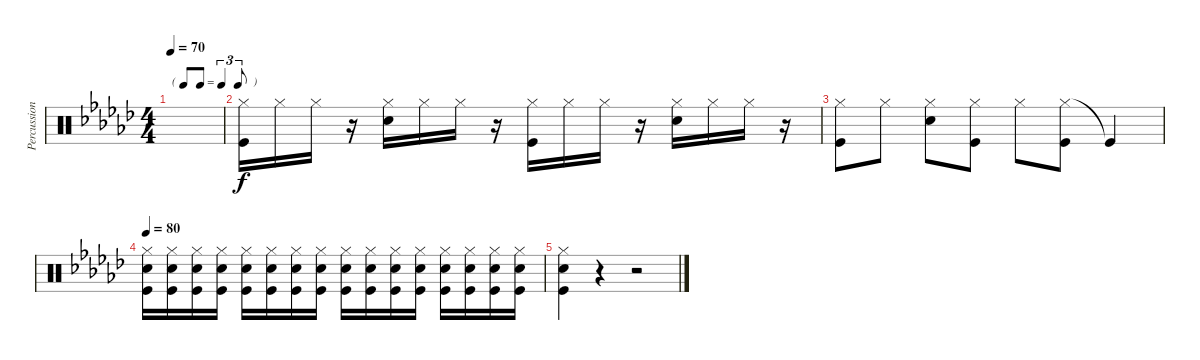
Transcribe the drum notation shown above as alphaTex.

\track ("Percussions" "Percussion") {instrument percussion}
\staff {score}
\articulation defaults
\ts (4 4)
\tf triplet8th
\tempo 70
\clef neutral
\ks gb
|
("Hi-Hat (closed)" "Kick (hit)").16 "Hi-Hat (closed)".16 "Hi-Hat (closed)".16 r.16 ("Hi-Hat (closed)" "Snare (hit) 2").16 "Hi-Hat (closed)".16 "Hi-Hat (closed)".16 r.16 ("Hi-Hat (closed)" "Kick (hit)").16 "Hi-Hat (closed)".16 "Hi-Hat (closed)".16 r.16 ("Hi-Hat (closed)" "Snare (hit) 2").16 "Hi-Hat (closed)".16 "Hi-Hat (closed)".16 r.16 |
("Hi-Hat (closed)" "Kick (hit)").8 "Hi-Hat (closed)".8 ("Hi-Hat (closed)" "Snare (hit) 2").8 ("Hi-Hat (closed)" "Kick (hit)").8 "Hi-Hat (closed)".8 ("Hi-Hat (closed)" "Kick (hit)").8 "Kick (hit)"{t}.4 |
\tempo 80
("Hi-Hat (closed)" "Snare (hit) 2" "Kick (hit)").16 ("Hi-Hat (closed)" "Snare (hit) 2" "Kick (hit)").16 ("Hi-Hat (closed)" "Snare (hit) 2" "Kick (hit)").16 ("Hi-Hat (closed)" "Snare (hit) 2" "Kick (hit)").16 ("Hi-Hat (closed)" "Snare (hit) 2" "Kick (hit)").16 ("Hi-Hat (closed)" "Snare (hit) 2" "Kick (hit)").16 ("Hi-Hat (closed)" "Snare (hit) 2" "Kick (hit)").16 ("Hi-Hat (closed)" "Snare (hit) 2" "Kick (hit)").16 ("Hi-Hat (closed)" "Snare (hit) 2" "Kick (hit)").16 ("Hi-Hat (closed)" "Snare (hit) 2" "Kick (hit)").16 ("Hi-Hat (closed)" "Snare (hit) 2" "Kick (hit)").16 ("Hi-Hat (closed)" "Snare (hit) 2" "Kick (hit)").16 ("Hi-Hat (closed)" "Snare (hit) 2" "Kick (hit)").16 ("Hi-Hat (closed)" "Snare (hit) 2" "Kick (hit)").16 ("Hi-Hat (closed)" "Snare (hit) 2" "Kick (hit)").16 ("Hi-Hat (closed)" "Snare (hit) 2" "Kick (hit)").16 |
("Hi-Hat (closed)" "Snare (hit) 2" "Kick (hit)").4 r.4 r.2
